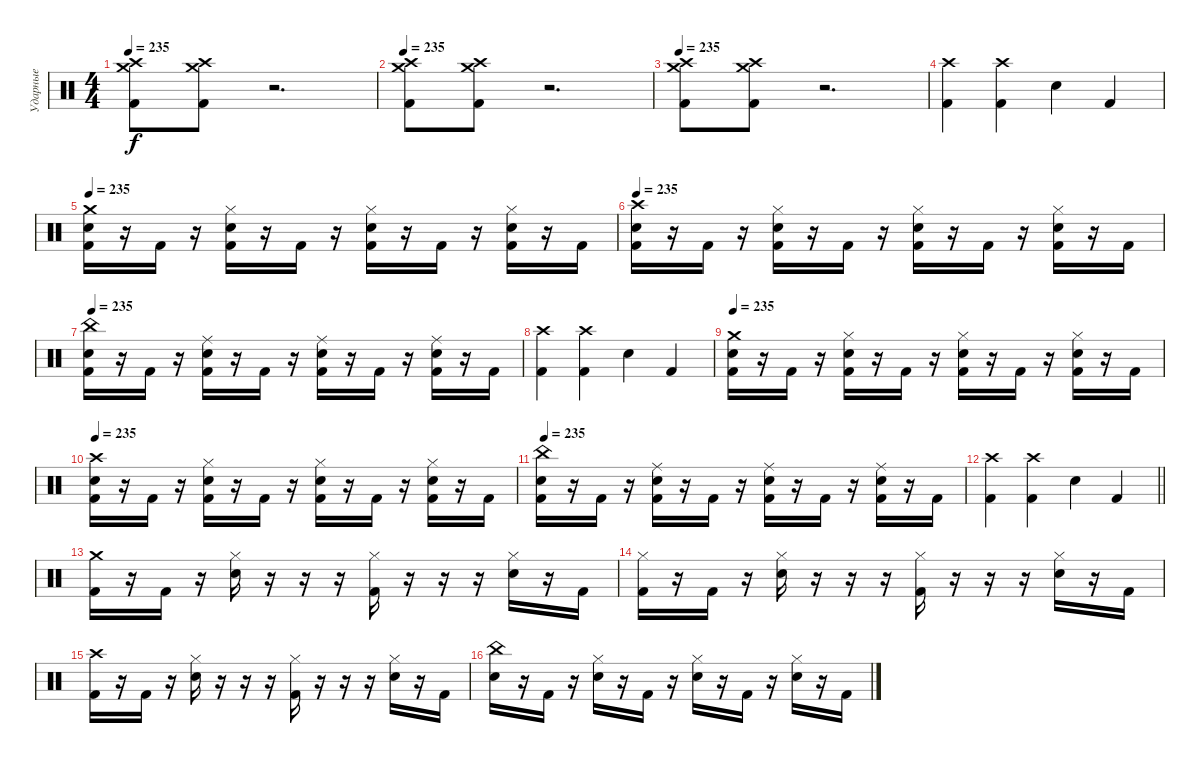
\track ("Ударные" "Ударные") {instrument percussion}
\staff {score}
\articulation defaults
\ts (4 4)
\tempo 235
\clef neutral
\ks c
("Crash medium (hit)" "Crash high (hit)" "Kick (hit) 2").8{dy f} ("Crash medium (hit)" "Crash high (hit)" "Kick (hit) 2").8 r.2{d} |
\tempo 235
("Crash medium (hit)" "Crash high (hit)" "Kick (hit) 2").8 ("Crash medium (hit)" "Crash high (hit)" "Kick (hit) 2").8 r.2{d} |
\tempo 235
("Crash medium (hit)" "Crash high (hit)" "Kick (hit) 2").8 ("Crash medium (hit)" "Crash high (hit)" "Kick (hit) 2").8 r.2{d} |
("Crash high (hit)" "Kick (hit) 2").4 ("Crash high (hit)" "Kick (hit) 2").4 "Snare (hit) 2".4 "Kick (hit) 2".4 |
\tempo 235
("Crash medium (hit)" "Snare (hit) 2" "Kick (hit) 2").16 r.16 "Kick (hit) 2".16 r.16 ("Hi-Hat (closed)" "Snare (hit) 2" "Kick (hit) 2").16 r.16 "Kick (hit) 2".16 r.16 ("Hi-Hat (closed)" "Snare (hit) 2" "Kick (hit) 2").16 r.16 "Kick (hit) 2".16 r.16 ("Hi-Hat (closed)" "Snare (hit) 2" "Kick (hit) 2").16 r.16 "Kick (hit) 2".16 |
\tempo 235
("Crash high (hit)" "Snare (hit) 2" "Kick (hit) 2").16 r.16 "Kick (hit) 2".16 r.16 ("Hi-Hat (closed)" "Snare (hit) 2" "Kick (hit) 2").16 r.16 "Kick (hit) 2".16 r.16 ("Hi-Hat (closed)" "Snare (hit) 2" "Kick (hit) 2").16 r.16 "Kick (hit) 2".16 r.16 ("Hi-Hat (closed)" "Snare (hit) 2" "Kick (hit) 2").16 r.16 "Kick (hit) 2".16 |
\tempo 235
("China (hit)" "Snare (hit) 2" "Kick (hit) 2").16 r.16 "Kick (hit) 2".16 r.16 ("Ride (middle)" "Snare (hit) 2" "Kick (hit) 2").16 r.16 "Kick (hit) 2".16 r.16 ("Ride (middle)" "Snare (hit) 2" "Kick (hit) 2").16 r.16 "Kick (hit) 2".16 r.16 ("Ride (middle)" "Snare (hit) 2" "Kick (hit) 2").16 r.16 "Kick (hit) 2".16 |
("Crash high (hit)" "Kick (hit) 2").4 ("Crash high (hit)" "Kick (hit) 2").4 "Snare (hit) 2".4 "Kick (hit) 2".4 |
\tempo 235
("Crash medium (hit)" "Snare (hit) 2" "Kick (hit) 2").16 r.16 "Kick (hit) 2".16 r.16 ("Hi-Hat (closed)" "Snare (hit) 2" "Kick (hit) 2").16 r.16 "Kick (hit) 2".16 r.16 ("Hi-Hat (closed)" "Snare (hit) 2" "Kick (hit) 2").16 r.16 "Kick (hit) 2".16 r.16 ("Hi-Hat (closed)" "Snare (hit) 2" "Kick (hit) 2").16 r.16 "Kick (hit) 2".16 |
\tempo 235
("Crash high (hit)" "Snare (hit) 2" "Kick (hit) 2").16 r.16 "Kick (hit) 2".16 r.16 ("Hi-Hat (closed)" "Snare (hit) 2" "Kick (hit) 2").16 r.16 "Kick (hit) 2".16 r.16 ("Hi-Hat (closed)" "Snare (hit) 2" "Kick (hit) 2").16 r.16 "Kick (hit) 2".16 r.16 ("Hi-Hat (closed)" "Snare (hit) 2" "Kick (hit) 2").16 r.16 "Kick (hit) 2".16 |
\tempo 235
("China (hit)" "Snare (hit) 2" "Kick (hit) 2").16 r.16 "Kick (hit) 2".16 r.16 ("Ride (middle)" "Snare (hit) 2" "Kick (hit) 2").16 r.16 "Kick (hit) 2".16 r.16 ("Ride (middle)" "Snare (hit) 2" "Kick (hit) 2").16 r.16 "Kick (hit) 2".16 r.16 ("Ride (middle)" "Snare (hit) 2" "Kick (hit) 2").16 r.16 "Kick (hit) 2".16 |
\barLineRight lightlight
("Crash high (hit)" "Kick (hit) 2").4 ("Crash high (hit)" "Kick (hit) 2").4 "Snare (hit) 2".4 "Kick (hit) 2".4 |
("Crash medium (hit)" "Kick (hit) 2").16 r.16 "Kick (hit) 2".16 r.16 ("Hi-Hat (closed)" "Snare (hit) 2").16 r.16 r.16 r.16 ("Hi-Hat (closed)" "Kick (hit) 2").16 r.16 r.16 r.16 ("Hi-Hat (closed)" "Snare (hit) 2").16 r.16 "Kick (hit) 2".16 |
("Hi-Hat (closed)" "Kick (hit) 2").16 r.16 "Kick (hit) 2".16 r.16 ("Hi-Hat (closed)" "Snare (hit) 2").16 r.16 r.16 r.16 ("Hi-Hat (closed)" "Kick (hit) 2").16 r.16 r.16 r.16 ("Hi-Hat (closed)" "Snare (hit) 2").16 r.16 "Kick (hit) 2".16 |
("Crash high (hit)" "Kick (hit) 2").16 r.16 "Kick (hit) 2".16 r.16 ("Hi-Hat (closed)" "Snare (hit) 2").16 r.16 r.16 r.16 ("Hi-Hat (closed)" "Kick (hit) 2").16 r.16 r.16 r.16 ("Hi-Hat (closed)" "Snare (hit) 2").16 r.16 "Kick (hit) 2".16 |
("China (hit)" "Snare (hit) 2").16 r.16 "Kick (hit) 2".16 r.16 ("Hi-Hat (closed)" "Snare (hit) 2").16 r.16 "Kick (hit) 2".16 r.16 ("Hi-Hat (closed)" "Snare (hit) 2").16 r.16 "Kick (hit) 2".16 r.16 ("Hi-Hat (closed)" "Snare (hit) 2").16 r.16 "Kick (hit) 2".16
